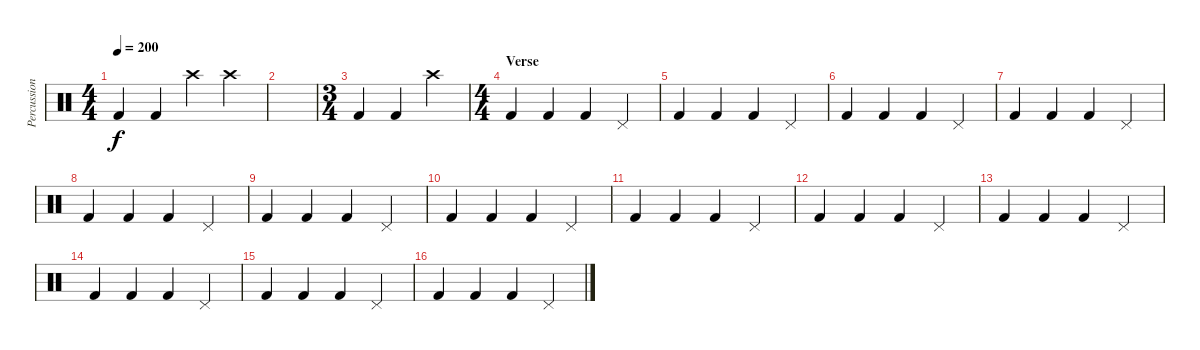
\track ("Percussion" "Percussion") {instrument percussion}
\staff {score}
\articulation defaults
\ts (4 4)
\tempo 200
\clef neutral
\ks c "Kick (hit) 2".4{dy f} "Kick (hit) 2".4 "Crash high (hit)".4 "Crash high (hit)".4
|
|
\ts (3 4)
"Kick (hit) 2".4 "Kick (hit) 2".4 "Crash high (hit)".4 |
\ts (4 4)
\section ("" "Verse")
"Kick (hit) 2".4 "Kick (hit) 2".4 "Kick (hit) 2".4 "Pedal Hi-Hat (hit)".4 |
"Kick (hit) 2".4 "Kick (hit) 2".4 "Kick (hit) 2".4 "Pedal Hi-Hat (hit)".4 |
"Kick (hit) 2".4 "Kick (hit) 2".4 "Kick (hit) 2".4 "Pedal Hi-Hat (hit)".4 |
"Kick (hit) 2".4 "Kick (hit) 2".4 "Kick (hit) 2".4 "Pedal Hi-Hat (hit)".4 |
"Kick (hit) 2".4 "Kick (hit) 2".4 "Kick (hit) 2".4 "Pedal Hi-Hat (hit)".4 |
"Kick (hit) 2".4 "Kick (hit) 2".4 "Kick (hit) 2".4 "Pedal Hi-Hat (hit)".4 |
"Kick (hit) 2".4 "Kick (hit) 2".4 "Kick (hit) 2".4 "Pedal Hi-Hat (hit)".4 |
"Kick (hit) 2".4 "Kick (hit) 2".4 "Kick (hit) 2".4 "Pedal Hi-Hat (hit)".4 |
"Kick (hit) 2".4 "Kick (hit) 2".4 "Kick (hit) 2".4 "Pedal Hi-Hat (hit)".4 |
"Kick (hit) 2".4 "Kick (hit) 2".4 "Kick (hit) 2".4 "Pedal Hi-Hat (hit)".4 |
"Kick (hit) 2".4 "Kick (hit) 2".4 "Kick (hit) 2".4 "Pedal Hi-Hat (hit)".4 |
"Kick (hit) 2".4 "Kick (hit) 2".4 "Kick (hit) 2".4 "Pedal Hi-Hat (hit)".4 |
"Kick (hit) 2".4 "Kick (hit) 2".4 "Kick (hit) 2".4 "Pedal Hi-Hat (hit)".4
